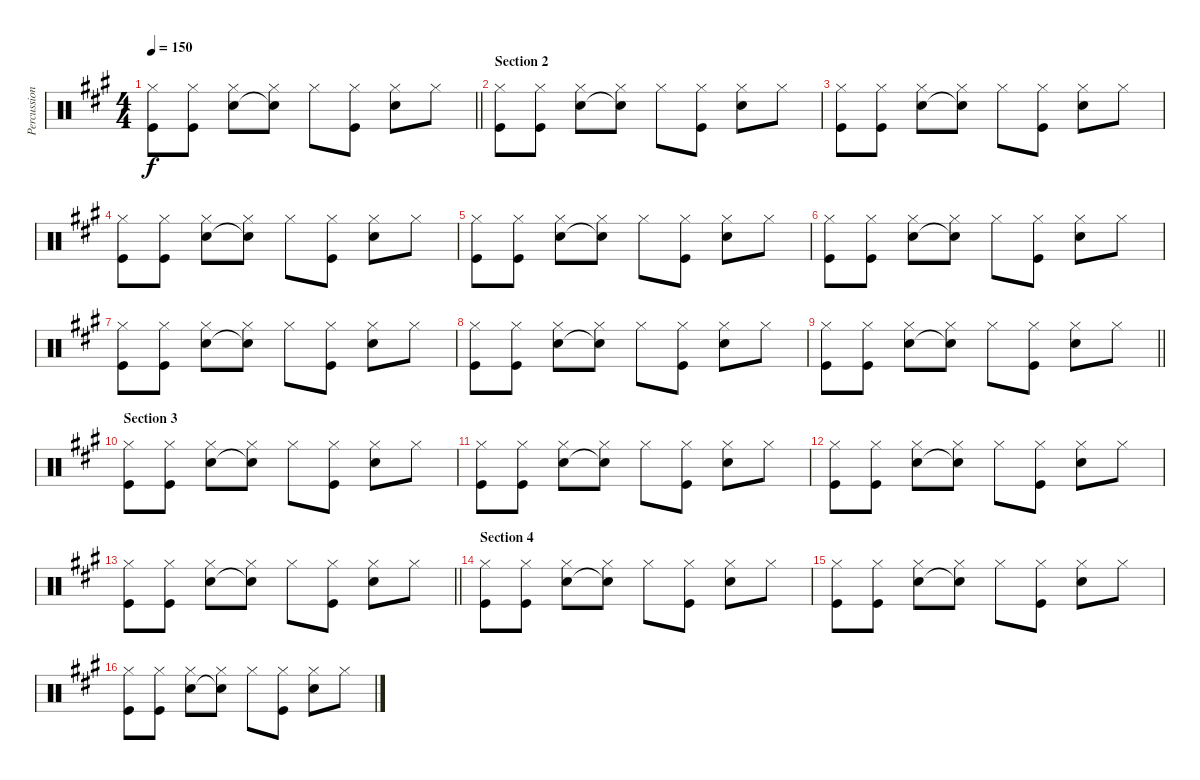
\track ("Percussion" "Percussion") {instrument percussion}
\staff {score}
\articulation defaults
\ts (4 4)
\tempo 150
\clef neutral
\barLineRight lightlight
\ks a
("Hi-Hat (closed)" "Kick (hit)").8{dy f} ("Hi-Hat (closed)" "Kick (hit)").8 ("Hi-Hat (closed)" "Electric Snare (hit)").8 ("Hi-Hat (closed)" "Snare (hit)"{t}).8 "Hi-Hat (closed)".8 ("Hi-Hat (closed)" "Kick (hit)").8 ("Hi-Hat (closed)" "Electric Snare (hit)").8 "Hi-Hat (closed)".8 |
\section ("" "Section 2")
("Hi-Hat (closed)" "Kick (hit)").8 ("Hi-Hat (closed)" "Kick (hit)").8 ("Hi-Hat (closed)" "Electric Snare (hit)").8 ("Hi-Hat (closed)" "Snare (hit)"{t}).8 "Hi-Hat (closed)".8 ("Hi-Hat (closed)" "Kick (hit)").8 ("Hi-Hat (closed)" "Electric Snare (hit)").8 "Hi-Hat (closed)".8 |
("Hi-Hat (closed)" "Kick (hit)").8 ("Hi-Hat (closed)" "Kick (hit)").8 ("Hi-Hat (closed)" "Electric Snare (hit)").8 ("Hi-Hat (closed)" "Snare (hit)"{t}).8 "Hi-Hat (closed)".8 ("Hi-Hat (closed)" "Kick (hit)").8 ("Hi-Hat (closed)" "Electric Snare (hit)").8 "Hi-Hat (closed)".8 |
("Hi-Hat (closed)" "Kick (hit)").8 ("Hi-Hat (closed)" "Kick (hit)").8 ("Hi-Hat (closed)" "Electric Snare (hit)").8 ("Hi-Hat (closed)" "Snare (hit)"{t}).8 "Hi-Hat (closed)".8 ("Hi-Hat (closed)" "Kick (hit)").8 ("Hi-Hat (closed)" "Electric Snare (hit)").8 "Hi-Hat (closed)".8 |
("Hi-Hat (closed)" "Kick (hit)").8 ("Hi-Hat (closed)" "Kick (hit)").8 ("Hi-Hat (closed)" "Electric Snare (hit)").8 ("Hi-Hat (closed)" "Snare (hit)"{t}).8 "Hi-Hat (closed)".8 ("Hi-Hat (closed)" "Kick (hit)").8 ("Hi-Hat (closed)" "Electric Snare (hit)").8 "Hi-Hat (closed)".8 |
("Hi-Hat (closed)" "Kick (hit)").8 ("Hi-Hat (closed)" "Kick (hit)").8 ("Hi-Hat (closed)" "Electric Snare (hit)").8 ("Hi-Hat (closed)" "Snare (hit)"{t}).8 "Hi-Hat (closed)".8 ("Hi-Hat (closed)" "Kick (hit)").8 ("Hi-Hat (closed)" "Electric Snare (hit)").8 "Hi-Hat (closed)".8 |
("Hi-Hat (closed)" "Kick (hit)").8 ("Hi-Hat (closed)" "Kick (hit)").8 ("Hi-Hat (closed)" "Electric Snare (hit)").8 ("Hi-Hat (closed)" "Snare (hit)"{t}).8 "Hi-Hat (closed)".8 ("Hi-Hat (closed)" "Kick (hit)").8 ("Hi-Hat (closed)" "Electric Snare (hit)").8 "Hi-Hat (closed)".8 |
("Hi-Hat (closed)" "Kick (hit)").8 ("Hi-Hat (closed)" "Kick (hit)").8 ("Hi-Hat (closed)" "Electric Snare (hit)").8 ("Hi-Hat (closed)" "Snare (hit)"{t}).8 "Hi-Hat (closed)".8 ("Hi-Hat (closed)" "Kick (hit)").8 ("Hi-Hat (closed)" "Electric Snare (hit)").8 "Hi-Hat (closed)".8 |
\barLineRight lightlight
("Hi-Hat (closed)" "Kick (hit)").8 ("Hi-Hat (closed)" "Kick (hit)").8 ("Hi-Hat (closed)" "Electric Snare (hit)").8 ("Hi-Hat (closed)" "Snare (hit)"{t}).8 "Hi-Hat (closed)".8 ("Hi-Hat (closed)" "Kick (hit)").8 ("Hi-Hat (closed)" "Electric Snare (hit)").8 "Hi-Hat (closed)".8 |
\section ("" "Section 3")
("Hi-Hat (closed)" "Kick (hit)").8 ("Hi-Hat (closed)" "Kick (hit)").8 ("Hi-Hat (closed)" "Electric Snare (hit)").8 ("Hi-Hat (closed)" "Snare (hit)"{t}).8 "Hi-Hat (closed)".8 ("Hi-Hat (closed)" "Kick (hit)").8 ("Hi-Hat (closed)" "Electric Snare (hit)").8 "Hi-Hat (closed)".8 |
("Hi-Hat (closed)" "Kick (hit)").8 ("Hi-Hat (closed)" "Kick (hit)").8 ("Hi-Hat (closed)" "Electric Snare (hit)").8 ("Hi-Hat (closed)" "Snare (hit)"{t}).8 "Hi-Hat (closed)".8 ("Hi-Hat (closed)" "Kick (hit)").8 ("Hi-Hat (closed)" "Electric Snare (hit)").8 "Hi-Hat (closed)".8 |
("Hi-Hat (closed)" "Kick (hit)").8 ("Hi-Hat (closed)" "Kick (hit)").8 ("Hi-Hat (closed)" "Electric Snare (hit)").8 ("Hi-Hat (closed)" "Snare (hit)"{t}).8 "Hi-Hat (closed)".8 ("Hi-Hat (closed)" "Kick (hit)").8 ("Hi-Hat (closed)" "Electric Snare (hit)").8 "Hi-Hat (closed)".8 |
\barLineRight lightlight
("Hi-Hat (closed)" "Kick (hit)").8 ("Hi-Hat (closed)" "Kick (hit)").8 ("Hi-Hat (closed)" "Electric Snare (hit)").8 ("Hi-Hat (closed)" "Snare (hit)"{t}).8 "Hi-Hat (closed)".8 ("Hi-Hat (closed)" "Kick (hit)").8 ("Hi-Hat (closed)" "Electric Snare (hit)").8 "Hi-Hat (closed)".8 |
\section ("" "Section 4")
("Hi-Hat (closed)" "Kick (hit)").8 ("Hi-Hat (closed)" "Kick (hit)").8 ("Hi-Hat (closed)" "Electric Snare (hit)").8 ("Hi-Hat (closed)" "Snare (hit)"{t}).8 "Hi-Hat (closed)".8 ("Hi-Hat (closed)" "Kick (hit)").8 ("Hi-Hat (closed)" "Electric Snare (hit)").8 "Hi-Hat (closed)".8 |
("Hi-Hat (closed)" "Kick (hit)").8 ("Hi-Hat (closed)" "Kick (hit)").8 ("Hi-Hat (closed)" "Electric Snare (hit)").8 ("Hi-Hat (closed)" "Snare (hit)"{t}).8 "Hi-Hat (closed)".8 ("Hi-Hat (closed)" "Kick (hit)").8 ("Hi-Hat (closed)" "Electric Snare (hit)").8 "Hi-Hat (closed)".8 |
("Hi-Hat (closed)" "Kick (hit)").8 ("Hi-Hat (closed)" "Kick (hit)").8 ("Hi-Hat (closed)" "Electric Snare (hit)").8 ("Hi-Hat (closed)" "Snare (hit)"{t}).8 "Hi-Hat (closed)".8 ("Hi-Hat (closed)" "Kick (hit)").8 ("Hi-Hat (closed)" "Electric Snare (hit)").8 "Hi-Hat (closed)".8
